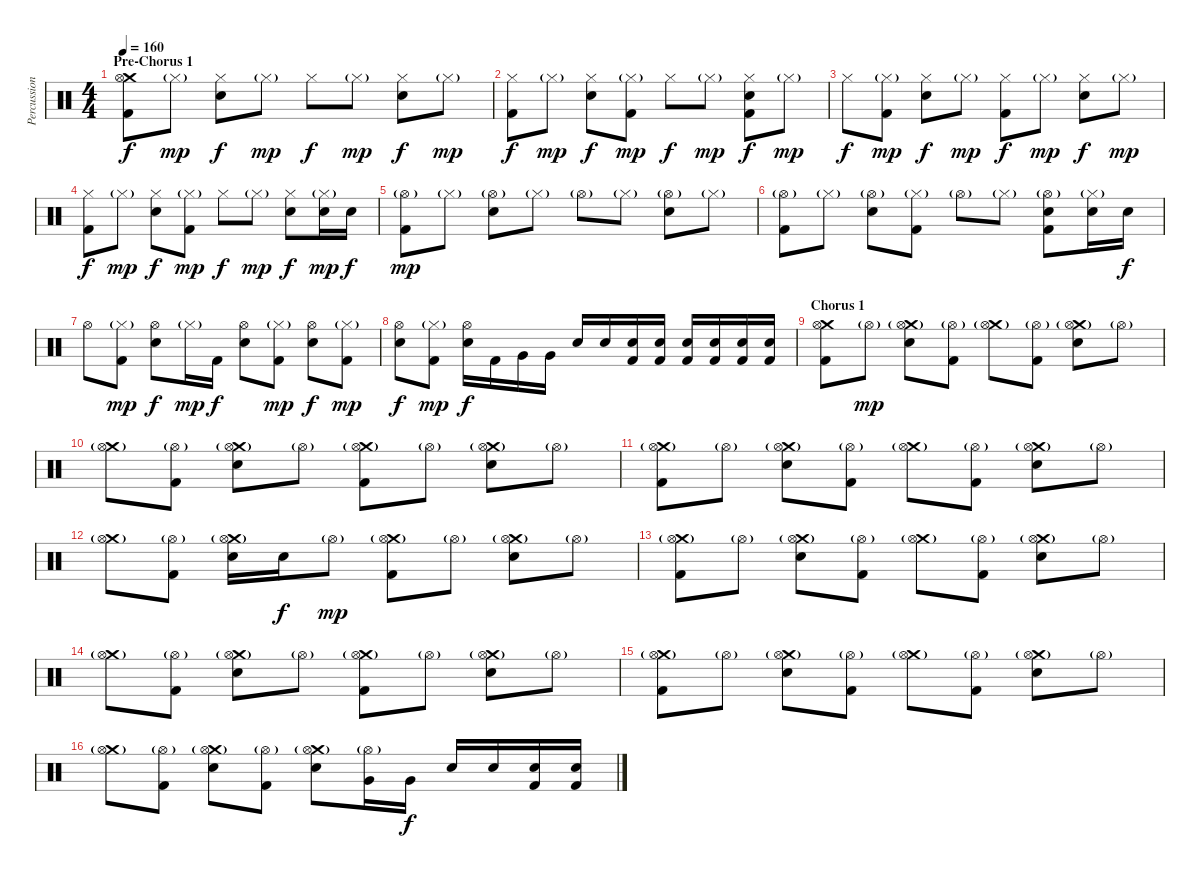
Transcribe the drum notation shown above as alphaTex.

\track ("Percussions" "Percussion") {instrument percussion}
\staff {score}
\articulation defaults
\ts (4 4)
\section ("" "Pre-Chorus 1")
\tempo 160
\clef neutral
\ks c
("Crash medium (hit)" "Hi-Hat (open)" "Kick (hit) 2").8{dy f} "Hi-Hat (closed)"{g}.8{dy mp} ("Hi-Hat (closed)" "Snare (hit) 2").8{dy f} "Hi-Hat (closed)"{g}.8{dy mp} "Hi-Hat (closed)".8{dy f} "Hi-Hat (closed)"{g}.8{dy mp} ("Hi-Hat (closed)" "Snare (hit) 2").8{dy f} "Hi-Hat (closed)"{g}.8{dy mp} |
("Hi-Hat (closed)" "Kick (hit) 2").8{dy f} "Hi-Hat (closed)"{g}.8{dy mp} ("Hi-Hat (closed)" "Snare (hit) 2").8{dy f} ("Hi-Hat (closed)"{g} "Kick (hit) 2").8{dy mp} "Hi-Hat (closed)".8{dy f} "Hi-Hat (closed)"{g}.8{dy mp} ("Hi-Hat (closed)" "Snare (hit) 2" "Kick (hit) 2").8{dy f} "Hi-Hat (closed)"{g}.8{dy mp} |
"Hi-Hat (closed)".8{dy f} ("Hi-Hat (closed)"{g} "Kick (hit) 2").8{dy mp} ("Hi-Hat (closed)" "Snare (hit) 2").8{dy f} "Hi-Hat (closed)"{g}.8{dy mp} ("Hi-Hat (closed)" "Kick (hit) 2").8{dy f} "Hi-Hat (closed)"{g}.8{dy mp} ("Hi-Hat (closed)" "Snare (hit) 2").8{dy f} "Hi-Hat (closed)"{g}.8{dy mp} |
("Hi-Hat (closed)" "Kick (hit) 2").8{dy f} "Hi-Hat (closed)"{g}.8{dy mp} ("Hi-Hat (closed)" "Snare (hit) 2").8{dy f} ("Hi-Hat (closed)"{g} "Kick (hit) 2").8{dy mp} "Hi-Hat (closed)".8{dy f} "Hi-Hat (closed)"{g}.8{dy mp} ("Hi-Hat (closed)" "Snare (hit) 2").8{dy f} ("Hi-Hat (closed)"{g} "Snare (hit) 2").16{dy mp} "Snare (hit) 2".16{dy f} |
("Hi-Hat (open)"{g} "Kick (hit) 2").8{dy mp} "Hi-Hat (closed)"{g}.8 ("Hi-Hat (open)"{g} "Snare (hit) 2").8 "Hi-Hat (closed)"{g}.8 "Hi-Hat (open)"{g}.8 "Hi-Hat (closed)"{g}.8 ("Hi-Hat (open)"{g} "Snare (hit) 2").8 "Hi-Hat (closed)"{g}.8 |
("Hi-Hat (open)"{g} "Kick (hit) 2").8 "Hi-Hat (closed)"{g}.8 ("Hi-Hat (open)"{g} "Snare (hit) 2").8 ("Hi-Hat (closed)"{g} "Kick (hit) 2").8 "Hi-Hat (open)"{g}.8 "Hi-Hat (closed)"{g}.8 ("Hi-Hat (open)"{g} "Snare (hit) 2" "Kick (hit) 2").8 ("Hi-Hat (closed)"{g} "Snare (hit) 2").16 "Snare (hit) 2".16{dy f} |
"Hi-Hat (open)".8 ("Hi-Hat (closed)"{g} "Kick (hit) 2").8{dy mp} ("Hi-Hat (open)" "Snare (hit) 2").8{dy f} "Hi-Hat (closed)"{g}.16{dy mp} "Kick (hit) 2".16{dy f} ("Hi-Hat (open)" "Snare (hit) 2").8 ("Hi-Hat (closed)"{g} "Kick (hit) 2").8{dy mp} ("Hi-Hat (open)" "Snare (hit) 2").8{dy f} ("Hi-Hat (closed)"{g} "Kick (hit) 2").8{dy mp} |
("Hi-Hat (open)" "Snare (hit) 2").8{dy f} ("Hi-Hat (closed)"{g} "Kick (hit) 2").8{dy mp} ("Hi-Hat (open)" "Snare (hit) 2").16{dy f} "Kick (hit) 2".16 "Very Low Tom (hit)".16 "Very Low Tom (hit)".16 "Snare (hit) 2".16 "Snare (hit) 2".16 ("Snare (hit) 2" "Kick (hit) 2").16 ("Snare (hit) 2" "Kick (hit) 2").16 ("Snare (hit) 2" "Kick (hit) 2").16 ("Snare (hit) 2" "Kick (hit) 2").16 ("Snare (hit) 2" "Kick (hit) 2").16 ("Snare (hit) 2" "Kick (hit) 2").16 |
\section ("" "Chorus 1")
("Crash medium (hit)" "Hi-Hat (open)" "Kick (hit) 2").8 "Hi-Hat (open)"{g}.8{dy mp} ("Crash medium (hit)"{g} "Hi-Hat (open)" "Snare (hit) 2").8 ("Hi-Hat (open)"{g} "Kick (hit) 2").8 ("Crash medium (hit)"{g} "Hi-Hat (open)").8 ("Hi-Hat (open)"{g} "Kick (hit) 2").8 ("Crash medium (hit)"{g} "Hi-Hat (open)" "Snare (hit) 2").8 "Hi-Hat (open)"{g}.8 |
("Crash medium (hit)"{g} "Hi-Hat (open)").8 ("Hi-Hat (open)"{g} "Kick (hit) 2").8 ("Crash medium (hit)"{g} "Hi-Hat (open)" "Snare (hit) 2").8 "Hi-Hat (open)"{g}.8 ("Crash medium (hit)"{g} "Hi-Hat (open)" "Kick (hit) 2").8 "Hi-Hat (open)"{g}.8 ("Crash medium (hit)"{g} "Hi-Hat (open)" "Snare (hit) 2").8 "Hi-Hat (open)"{g}.8 |
("Crash medium (hit)"{g} "Hi-Hat (open)" "Kick (hit) 2").8 "Hi-Hat (open)"{g}.8 ("Crash medium (hit)"{g} "Hi-Hat (open)" "Snare (hit) 2").8 ("Hi-Hat (open)"{g} "Kick (hit) 2").8 ("Crash medium (hit)"{g} "Hi-Hat (open)").8 ("Hi-Hat (open)"{g} "Kick (hit) 2").8 ("Crash medium (hit)"{g} "Hi-Hat (open)" "Snare (hit) 2").8 "Hi-Hat (open)"{g}.8 |
("Crash medium (hit)"{g} "Hi-Hat (open)").8 ("Hi-Hat (open)"{g} "Kick (hit) 2").8 ("Crash medium (hit)"{g} "Hi-Hat (open)" "Snare (hit) 2").16 "Snare (hit) 2".16{dy f} "Hi-Hat (open)"{g}.8{dy mp} ("Crash medium (hit)"{g} "Hi-Hat (open)" "Kick (hit) 2").8 "Hi-Hat (open)"{g}.8 ("Crash medium (hit)"{g} "Hi-Hat (open)" "Snare (hit) 2").8 "Hi-Hat (open)"{g}.8 |
("Crash medium (hit)"{g} "Hi-Hat (open)" "Kick (hit) 2").8 "Hi-Hat (open)"{g}.8 ("Crash medium (hit)"{g} "Hi-Hat (open)" "Snare (hit) 2").8 ("Hi-Hat (open)"{g} "Kick (hit) 2").8 ("Crash medium (hit)"{g} "Hi-Hat (open)").8 ("Hi-Hat (open)"{g} "Kick (hit) 2").8 ("Crash medium (hit)"{g} "Hi-Hat (open)" "Snare (hit) 2").8 "Hi-Hat (open)"{g}.8 |
("Crash medium (hit)"{g} "Hi-Hat (open)").8 ("Hi-Hat (open)"{g} "Kick (hit) 2").8 ("Crash medium (hit)"{g} "Hi-Hat (open)" "Snare (hit) 2").8 "Hi-Hat (open)"{g}.8 ("Crash medium (hit)"{g} "Hi-Hat (open)" "Kick (hit) 2").8 "Hi-Hat (open)"{g}.8 ("Crash medium (hit)"{g} "Hi-Hat (open)" "Snare (hit) 2").8 "Hi-Hat (open)"{g}.8 |
("Crash medium (hit)"{g} "Hi-Hat (open)" "Kick (hit) 2").8 "Hi-Hat (open)"{g}.8 ("Crash medium (hit)"{g} "Hi-Hat (open)" "Snare (hit) 2").8 ("Hi-Hat (open)"{g} "Kick (hit) 2").8 ("Crash medium (hit)"{g} "Hi-Hat (open)").8 ("Hi-Hat (open)"{g} "Kick (hit) 2").8 ("Crash medium (hit)"{g} "Hi-Hat (open)" "Snare (hit) 2").8 "Hi-Hat (open)"{g}.8 |
("Crash medium (hit)"{g} "Hi-Hat (open)").8 ("Hi-Hat (open)"{g} "Kick (hit) 2").8 ("Crash medium (hit)"{g} "Hi-Hat (open)" "Snare (hit) 2").8 ("Hi-Hat (open)"{g} "Kick (hit) 2").8 ("Crash medium (hit)"{g} "Hi-Hat (open)" "Snare (hit) 2").8 ("Hi-Hat (open)"{g} "Very Low Tom (hit)").16 "Very Low Tom (hit)".16{dy f} "Snare (hit) 2".16 "Snare (hit) 2".16 ("Snare (hit) 2" "Kick (hit) 2").16 ("Snare (hit) 2" "Kick (hit) 2").16
